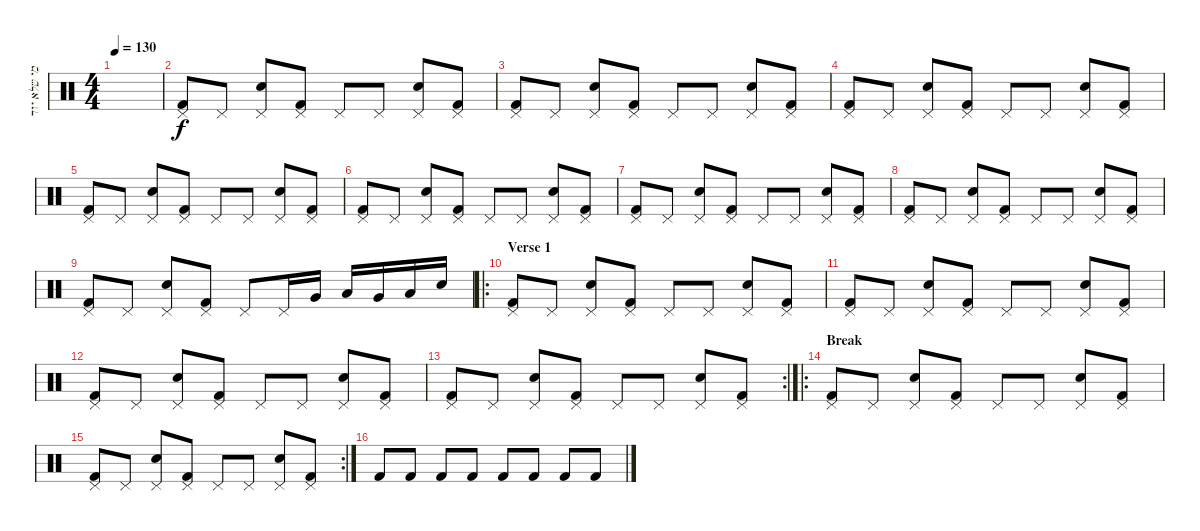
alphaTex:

\track ("מי שלא יודע עברית סתם הומו" "מי שלא יוד") {instrument percussion}
\staff {score}
\articulation defaults
\ts (4 4)
\tempo 130
\clef neutral
\ks c
|
("Pedal Hi-Hat (hit)" "Kick (hit) 2").8 "Pedal Hi-Hat (hit)".8 ("Pedal Hi-Hat (hit)" "Snare (hit) 2").8 ("Pedal Hi-Hat (hit)" "Kick (hit) 2").8 "Pedal Hi-Hat (hit)".8 "Pedal Hi-Hat (hit)".8 ("Pedal Hi-Hat (hit)" "Snare (hit) 2").8 ("Pedal Hi-Hat (hit)" "Kick (hit) 2").8 |
("Pedal Hi-Hat (hit)" "Kick (hit) 2").8 "Pedal Hi-Hat (hit)".8 ("Pedal Hi-Hat (hit)" "Snare (hit) 2").8 ("Pedal Hi-Hat (hit)" "Kick (hit) 2").8 "Pedal Hi-Hat (hit)".8 "Pedal Hi-Hat (hit)".8 ("Pedal Hi-Hat (hit)" "Snare (hit) 2").8 ("Pedal Hi-Hat (hit)" "Kick (hit) 2").8 |
("Pedal Hi-Hat (hit)" "Kick (hit) 2").8 "Pedal Hi-Hat (hit)".8 ("Pedal Hi-Hat (hit)" "Snare (hit) 2").8 ("Pedal Hi-Hat (hit)" "Kick (hit) 2").8 "Pedal Hi-Hat (hit)".8 "Pedal Hi-Hat (hit)".8 ("Pedal Hi-Hat (hit)" "Snare (hit) 2").8 ("Pedal Hi-Hat (hit)" "Kick (hit) 2").8 |
("Pedal Hi-Hat (hit)" "Kick (hit) 2").8 "Pedal Hi-Hat (hit)".8 ("Pedal Hi-Hat (hit)" "Snare (hit) 2").8 ("Pedal Hi-Hat (hit)" "Kick (hit) 2").8 "Pedal Hi-Hat (hit)".8 "Pedal Hi-Hat (hit)".8 ("Pedal Hi-Hat (hit)" "Snare (hit) 2").8 ("Pedal Hi-Hat (hit)" "Kick (hit) 2").8 |
("Pedal Hi-Hat (hit)" "Kick (hit) 2").8 "Pedal Hi-Hat (hit)".8 ("Pedal Hi-Hat (hit)" "Snare (hit) 2").8 ("Pedal Hi-Hat (hit)" "Kick (hit) 2").8 "Pedal Hi-Hat (hit)".8 "Pedal Hi-Hat (hit)".8 ("Pedal Hi-Hat (hit)" "Snare (hit) 2").8 ("Pedal Hi-Hat (hit)" "Kick (hit) 2").8 |
("Pedal Hi-Hat (hit)" "Kick (hit) 2").8 "Pedal Hi-Hat (hit)".8 ("Pedal Hi-Hat (hit)" "Snare (hit) 2").8 ("Pedal Hi-Hat (hit)" "Kick (hit) 2").8 "Pedal Hi-Hat (hit)".8 "Pedal Hi-Hat (hit)".8 ("Pedal Hi-Hat (hit)" "Snare (hit) 2").8 ("Pedal Hi-Hat (hit)" "Kick (hit) 2").8 |
("Pedal Hi-Hat (hit)" "Kick (hit) 2").8 "Pedal Hi-Hat (hit)".8 ("Pedal Hi-Hat (hit)" "Snare (hit) 2").8 ("Pedal Hi-Hat (hit)" "Kick (hit) 2").8 "Pedal Hi-Hat (hit)".8 "Pedal Hi-Hat (hit)".8 ("Pedal Hi-Hat (hit)" "Snare (hit) 2").8 ("Pedal Hi-Hat (hit)" "Kick (hit) 2").8 |
("Pedal Hi-Hat (hit)" "Kick (hit) 2").8 "Pedal Hi-Hat (hit)".8 ("Pedal Hi-Hat (hit)" "Snare (hit) 2").8 ("Pedal Hi-Hat (hit)" "Kick (hit) 2").8 "Pedal Hi-Hat (hit)".8 "Pedal Hi-Hat (hit)".16 "Very Low Tom (hit)".16 "Low Tom (hit)".16 "Very Low Tom (hit)".16 "Low Floor Tom (hit)".16 "Electric Snare (hit)".16 |
\ro
\section ("" "Verse 1")
("Pedal Hi-Hat (hit)" "Kick (hit) 2").8 "Pedal Hi-Hat (hit)".8 ("Pedal Hi-Hat (hit)" "Snare (hit) 2").8 ("Pedal Hi-Hat (hit)" "Kick (hit) 2").8 "Pedal Hi-Hat (hit)".8 "Pedal Hi-Hat (hit)".8 ("Pedal Hi-Hat (hit)" "Snare (hit) 2").8 ("Pedal Hi-Hat (hit)" "Kick (hit) 2").8 |
("Pedal Hi-Hat (hit)" "Kick (hit) 2").8 "Pedal Hi-Hat (hit)".8 ("Pedal Hi-Hat (hit)" "Snare (hit) 2").8 ("Pedal Hi-Hat (hit)" "Kick (hit) 2").8 "Pedal Hi-Hat (hit)".8 "Pedal Hi-Hat (hit)".8 ("Pedal Hi-Hat (hit)" "Snare (hit) 2").8 ("Pedal Hi-Hat (hit)" "Kick (hit) 2").8 |
("Pedal Hi-Hat (hit)" "Kick (hit) 2").8 "Pedal Hi-Hat (hit)".8 ("Pedal Hi-Hat (hit)" "Snare (hit) 2").8 ("Pedal Hi-Hat (hit)" "Kick (hit) 2").8 "Pedal Hi-Hat (hit)".8 "Pedal Hi-Hat (hit)".8 ("Pedal Hi-Hat (hit)" "Snare (hit) 2").8 ("Pedal Hi-Hat (hit)" "Kick (hit) 2").8 |
\rc 2
("Pedal Hi-Hat (hit)" "Kick (hit) 2").8 "Pedal Hi-Hat (hit)".8 ("Pedal Hi-Hat (hit)" "Snare (hit) 2").8 ("Pedal Hi-Hat (hit)" "Kick (hit) 2").8 "Pedal Hi-Hat (hit)".8 "Pedal Hi-Hat (hit)".8 ("Pedal Hi-Hat (hit)" "Snare (hit) 2").8 ("Pedal Hi-Hat (hit)" "Kick (hit) 2").8 |
\ro
\section ("" "Break")
("Pedal Hi-Hat (hit)" "Kick (hit) 2").8 "Pedal Hi-Hat (hit)".8 ("Pedal Hi-Hat (hit)" "Snare (hit) 2").8 ("Pedal Hi-Hat (hit)" "Kick (hit) 2").8 "Pedal Hi-Hat (hit)".8 "Pedal Hi-Hat (hit)".8 ("Pedal Hi-Hat (hit)" "Snare (hit) 2").8 ("Pedal Hi-Hat (hit)" "Kick (hit) 2").8 |
\rc 2
("Pedal Hi-Hat (hit)" "Kick (hit) 2").8 "Pedal Hi-Hat (hit)".8 ("Pedal Hi-Hat (hit)" "Snare (hit) 2").8 ("Pedal Hi-Hat (hit)" "Kick (hit) 2").8 "Pedal Hi-Hat (hit)".8 "Pedal Hi-Hat (hit)".8 ("Pedal Hi-Hat (hit)" "Snare (hit) 2").8 ("Pedal Hi-Hat (hit)" "Kick (hit) 2").8 |
"Kick (hit) 2".8 "Kick (hit) 2".8 "Kick (hit) 2".8 "Kick (hit) 2".8 "Kick (hit) 2".8 "Kick (hit) 2".8 "Kick (hit) 2".8 "Kick (hit) 2".8
